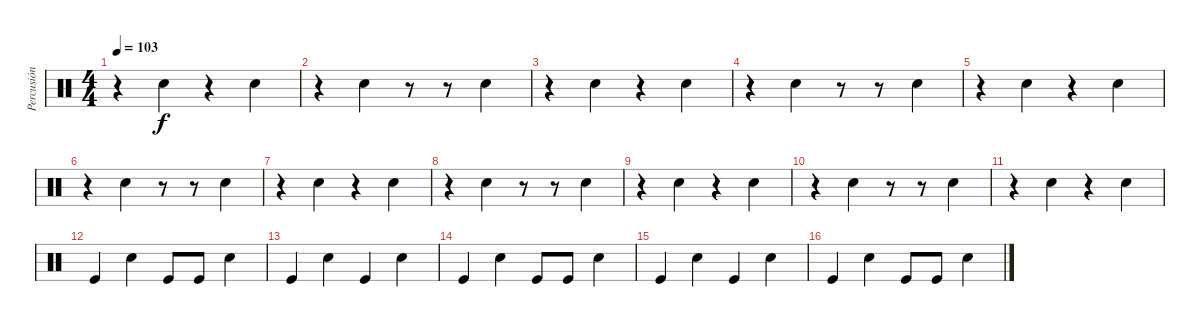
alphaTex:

\track ("Percusión" "Percusión") {instrument percussion}
\staff {score}
\articulation defaults
\ts (4 4)
\tempo 103
\clef neutral
\ks c
r.4{dy f} "Electric Snare (hit)".4 r.4 "Electric Snare (hit)".4 |
r.4 "Electric Snare (hit)".4 r.8 r.8 "Electric Snare (hit)".4 |
r.4 "Electric Snare (hit)".4 r.4 "Electric Snare (hit)".4 |
r.4 "Electric Snare (hit)".4 r.8 r.8 "Electric Snare (hit)".4 |
r.4 "Electric Snare (hit)".4 r.4 "Electric Snare (hit)".4 |
r.4 "Electric Snare (hit)".4 r.8 r.8 "Electric Snare (hit)".4 |
r.4 "Electric Snare (hit)".4 r.4 "Electric Snare (hit)".4 |
r.4 "Electric Snare (hit)".4 r.8 r.8 "Electric Snare (hit)".4 |
r.4 "Electric Snare (hit)".4 r.4 "Electric Snare (hit)".4 |
r.4 "Electric Snare (hit)".4 r.8 r.8 "Electric Snare (hit)".4 |
r.4 "Electric Snare (hit)".4 r.4 "Electric Snare (hit)".4 |
"Kick (hit)".4 "Electric Snare (hit)".4 "Kick (hit)".8 "Kick (hit)".8 "Electric Snare (hit)".4 |
"Kick (hit)".4 "Electric Snare (hit)".4 "Kick (hit)".4 "Electric Snare (hit)".4 |
"Kick (hit)".4 "Electric Snare (hit)".4 "Kick (hit)".8 "Kick (hit)".8 "Electric Snare (hit)".4 |
"Kick (hit)".4 "Electric Snare (hit)".4 "Kick (hit)".4 "Electric Snare (hit)".4 |
"Kick (hit)".4 "Electric Snare (hit)".4 "Kick (hit)".8 "Kick (hit)".8 "Electric Snare (hit)".4
